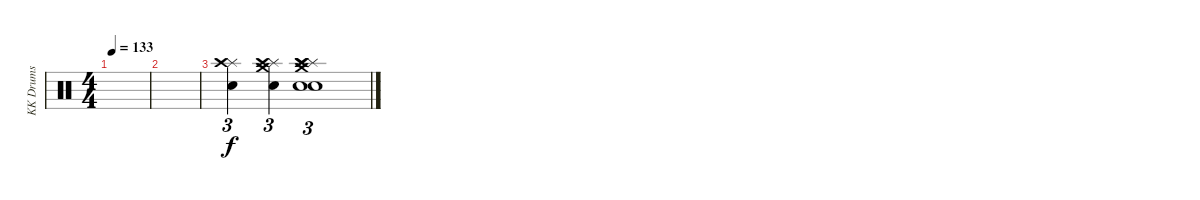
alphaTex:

\track ("KK Drums" "KK Drums") {instrument percussion}
\staff {score}
\articulation defaults
\ts (4 4)
\tempo 133
\clef neutral
\ks c
|
|
("Splash (hit)" "Snare (hit) 2" "Crash high (hit)").4{tu (3 2) dy f} ("Splash (hit)" "Snare (hit) 2" "Crash medium (hit)" "Crash high (hit)").4{tu (3 2)} ("Splash (hit)" "Snare (hit) 2" "Snare (hit) 2" "Crash medium (hit)" "Crash high (hit)" "Crash high (hit)").1{tu (3 2)}
